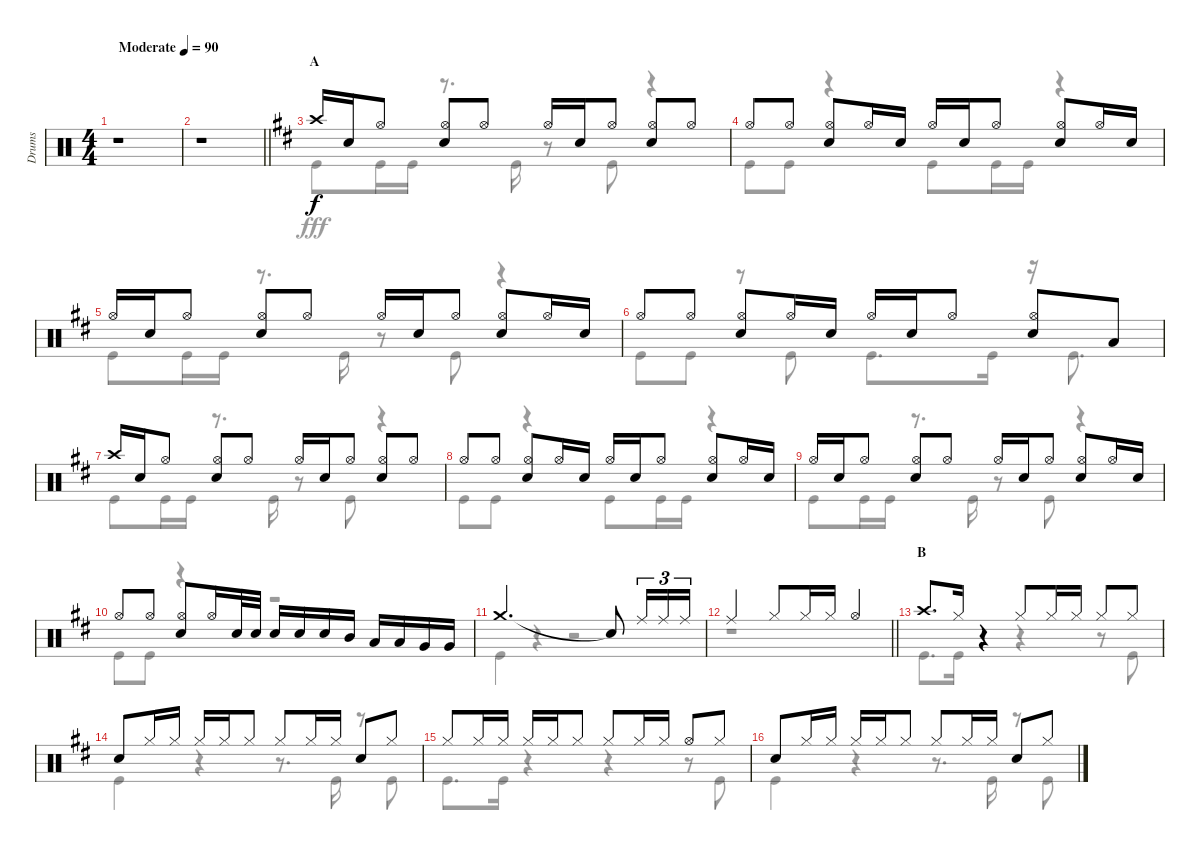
\track ("Drums" "Drums") {instrument percussion}
\staff {score}
\articulation defaults
\voice
\ts (4 4)
\tempo (90 "Moderate")
\clef neutral
\ks c
r.1{dy f} |
\barLineRight lightlight
r.1 |
\section ("" "A")
\ks d "Crash high (hit)".16 "Snare (hit) 2".16 "Hi-Hat (open)".8
("Hi-Hat (open)" "Snare (hit) 2").8 "Hi-Hat (open)".8 "Hi-Hat (open)".16 "Snare (hit) 2".16 "Hi-Hat (open)".8 ("Hi-Hat (open)" "Snare (hit) 2").8 "Hi-Hat (open)".8 |
"Hi-Hat (open)".8 "Hi-Hat (open)".8 ("Hi-Hat (open)" "Snare (hit) 2").8 "Hi-Hat (open)".16 "Snare (hit) 2".16 "Hi-Hat (open)".16 "Snare (hit) 2".16 "Hi-Hat (open)".8 ("Hi-Hat (open)" "Snare (hit) 2").8 "Hi-Hat (open)".16 "Snare (hit) 2".16 |
"Hi-Hat (open)".16 "Snare (hit) 2".16 "Hi-Hat (open)".8 ("Hi-Hat (open)" "Snare (hit) 2").8 "Hi-Hat (open)".8 "Hi-Hat (open)".16 "Snare (hit) 2".16 "Hi-Hat (open)".8 ("Hi-Hat (open)" "Snare (hit) 2").8 "Hi-Hat (open)".16 "Snare (hit) 2".16 |
"Hi-Hat (open)".8 "Hi-Hat (open)".8 ("Hi-Hat (open)" "Snare (hit) 2").8 "Hi-Hat (open)".16 "Snare (hit) 2".16 "Hi-Hat (open)".16 "Snare (hit) 2".16 "Hi-Hat (open)".8 ("Hi-Hat (open)" "Snare (hit) 2").8 "Low Tom (hit)".8 |
"Crash high (hit)".16 "Snare (hit) 2".16 "Hi-Hat (open)".8 ("Hi-Hat (open)" "Snare (hit) 2").8 "Hi-Hat (open)".8 "Hi-Hat (open)".16 "Snare (hit) 2".16 "Hi-Hat (open)".8 ("Hi-Hat (open)" "Snare (hit) 2").8 "Hi-Hat (open)".8 |
"Hi-Hat (open)".8 "Hi-Hat (open)".8 ("Hi-Hat (open)" "Snare (hit) 2").8 "Hi-Hat (open)".16 "Snare (hit) 2".16 "Hi-Hat (open)".16 "Snare (hit) 2".16 "Hi-Hat (open)".8 ("Hi-Hat (open)" "Snare (hit) 2").8 "Hi-Hat (open)".16 "Snare (hit) 2".16 |
"Hi-Hat (open)".16 "Snare (hit) 2".16 "Hi-Hat (open)".8 ("Hi-Hat (open)" "Snare (hit) 2").8 "Hi-Hat (open)".8 "Hi-Hat (open)".16 "Snare (hit) 2".16 "Hi-Hat (open)".8 ("Hi-Hat (open)" "Snare (hit) 2").8 "Hi-Hat (open)".16 "Snare (hit) 2".16 |
"Hi-Hat (open)".8 "Hi-Hat (open)".8 ("Hi-Hat (open)" "Snare (hit) 2").8 "Hi-Hat (open)".16 "Snare (hit) 2".32 "Snare (hit) 2".32 "Snare (hit) 2".16 "Snare (hit) 2".16 "Snare (hit) 2".16 "Mid Tom (hit)".16 "Low Tom (hit)".16 "Low Tom (hit)".16 "Very Low Tom (hit)".16 "Very Low Tom (hit)".16 |
"Crash medium (hit)".2{d} "Snare (hit)"{t}.8 "Ride (middle)".16{tu (3 2)} "Ride (middle)".16{tu (3 2)} "Ride (middle)".16{tu (3 2)} |
\barLineRight lightlight "Ride (middle)".2 "Hi-Hat (closed)".8 "Hi-Hat (closed)".16 "Hi-Hat (closed)".16 "Hi-Hat (open)".4
|
\section ("" "B")
"Crash high (hit)".8{d} "Hi-Hat (closed)".16 r.4 "Hi-Hat (closed)".8 "Hi-Hat (closed)".16 "Hi-Hat (closed)".16 "Hi-Hat (closed)".8 "Hi-Hat (closed)".8 |
"Snare (hit) 2".8 "Hi-Hat (closed)".16 "Hi-Hat (closed)".16 "Hi-Hat (closed)".16 "Hi-Hat (closed)".16 "Hi-Hat (closed)".8 "Hi-Hat (closed)".8 "Hi-Hat (closed)".16 "Hi-Hat (closed)".16 "Snare (hit) 2".8 "Hi-Hat (closed)".8 |
"Hi-Hat (closed)".8 "Hi-Hat (closed)".16 "Hi-Hat (closed)".16 "Hi-Hat (closed)".16 "Hi-Hat (closed)".16 "Hi-Hat (closed)".8 "Hi-Hat (closed)".8 "Hi-Hat (closed)".16 "Hi-Hat (closed)".16 "Hi-Hat (open)".8 "Hi-Hat (closed)".8 |
"Snare (hit) 2".8 "Hi-Hat (closed)".16 "Hi-Hat (closed)".16 "Hi-Hat (closed)".16 "Hi-Hat (closed)".16 "Hi-Hat (closed)".8 "Hi-Hat (closed)".8 "Hi-Hat (closed)".16 "Hi-Hat (closed)".16 "Snare (hit) 2".8 "Hi-Hat (closed)".8
\voice
\clef neutral
\ottava regular
\simile none
\ks c
r.1{dy fff} |
\barLineRight lightlight
r.1 |
\ks d "Kick (hit)".8 "Kick (hit)".16 "Kick (hit)".16
r.8{d} "Kick (hit)".16 r.8 "Kick (hit)".8 r.4 |
"Kick (hit)".8 "Kick (hit)".8 r.4 "Kick (hit)".8 "Kick (hit)".16 "Kick (hit)".16 r.4 |
"Kick (hit)".8 "Kick (hit)".16 "Kick (hit)".16 r.8{d} "Kick (hit)".16 r.8 "Kick (hit)".8 r.4 |
"Kick (hit)".8 "Kick (hit)".8 r.8 "Kick (hit)".8 "Kick (hit)".8{d} "Kick (hit)".16 r.16 "Kick (hit)".8{d} |
"Kick (hit)".8 "Kick (hit)".16 "Kick (hit)".16 r.8{d} "Kick (hit)".16 r.8 "Kick (hit)".8 r.4 |
"Kick (hit)".8 "Kick (hit)".8 r.4 "Kick (hit)".8 "Kick (hit)".16 "Kick (hit)".16 r.4 |
"Kick (hit)".8 "Kick (hit)".16 "Kick (hit)".16 r.8{d} "Kick (hit)".16 r.8 "Kick (hit)".8 r.4 |
"Kick (hit)".8 "Kick (hit)".8 r.4 r.2 |
"Kick (hit)".4 r.4 r.2 |
\barLineRight lightlight
r.1 |
"Kick (hit)".8{d} "Kick (hit)".16 r.4 r.4 r.8 "Kick (hit)".8 |
"Kick (hit)".4 r.4 r.8{d} "Kick (hit)".16 r.8 "Kick (hit)".8 |
"Kick (hit)".8{d} "Kick (hit)".16 r.4 r.4 r.8 "Kick (hit)".8 |
"Kick (hit)".4 r.4 r.8{d} "Kick (hit)".16 r.8 "Kick (hit)".8
